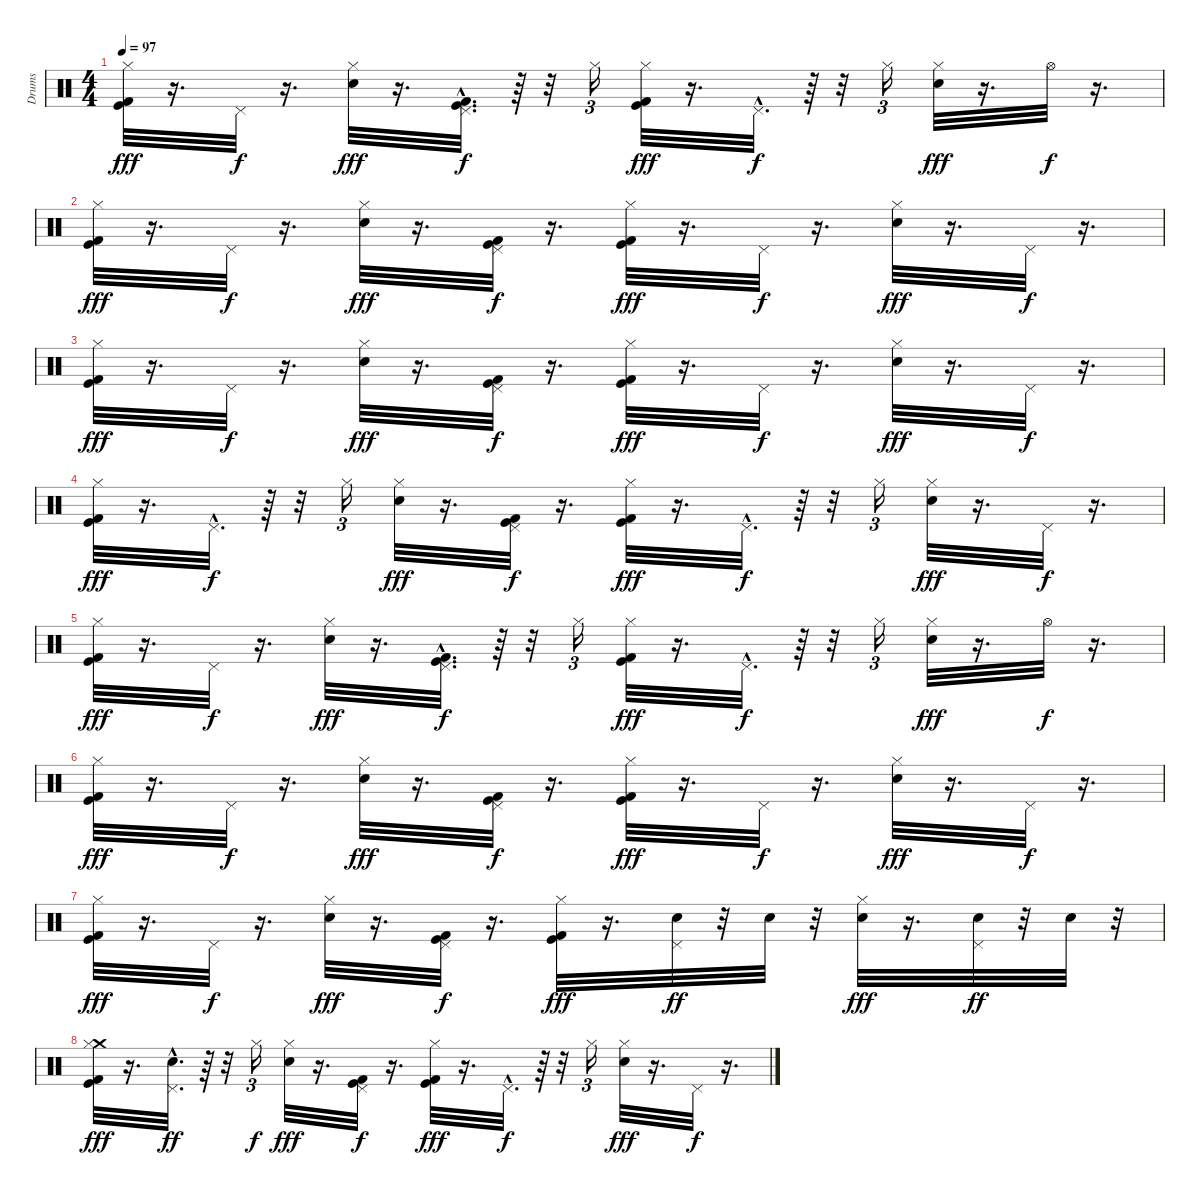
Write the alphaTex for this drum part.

\track ("Drums" "Drums") {instrument percussion}
\staff {score}
\articulation defaults
\ts (4 4)
\tempo 97
\clef neutral
\ks c
("Kick (hit)" "Kick (hit) 2" "Hi-Hat (closed)").32{dy fff} r.16{d} "Pedal Hi-Hat (hit)".32{dy f} r.16{d} ("Hi-Hat (closed)" "Snare (hit) 2").32{dy fff} r.16{d} ("Kick (hit) 2"{hac} "Kick (hit)"{hac} "Pedal Hi-Hat (hit)"{hac}).32{d dy f} r.64 r.32 "Hi-Hat (closed)".16{tu (3 2)} ("Kick (hit)" "Kick (hit) 2" "Hi-Hat (closed)").32{dy fff} r.16{d} "Pedal Hi-Hat (hit)"{hac}.32{d dy f} r.64 r.32 "Hi-Hat (closed)".16{tu (3 2)} ("Hi-Hat (closed)" "Snare (hit) 2").32{dy fff} r.16{d} "Hi-Hat (open)".32{dy f} r.16{d} |
("Kick (hit)" "Kick (hit) 2" "Hi-Hat (closed)").32{dy fff} r.16{d} "Pedal Hi-Hat (hit)".32{dy f} r.16{d} ("Hi-Hat (closed)" "Snare (hit) 2").32{dy fff} r.16{d} ("Kick (hit) 2" "Kick (hit)" "Pedal Hi-Hat (hit)").32{dy f} r.16{d} ("Kick (hit)" "Kick (hit) 2" "Hi-Hat (closed)").32{dy fff} r.16{d} "Pedal Hi-Hat (hit)".32{dy f} r.16{d} ("Hi-Hat (closed)" "Snare (hit) 2").32{dy fff} r.16{d} "Pedal Hi-Hat (hit)".32{dy f} r.16{d} |
("Kick (hit)" "Kick (hit) 2" "Hi-Hat (closed)").32{dy fff} r.16{d} "Pedal Hi-Hat (hit)".32{dy f} r.16{d} ("Hi-Hat (closed)" "Snare (hit) 2").32{dy fff} r.16{d} ("Kick (hit) 2" "Kick (hit)" "Pedal Hi-Hat (hit)").32{dy f} r.16{d} ("Kick (hit)" "Kick (hit) 2" "Hi-Hat (closed)").32{dy fff} r.16{d} "Pedal Hi-Hat (hit)".32{dy f} r.16{d} ("Hi-Hat (closed)" "Snare (hit) 2").32{dy fff} r.16{d} "Pedal Hi-Hat (hit)".32{dy f} r.16{d} |
("Kick (hit)" "Kick (hit) 2" "Hi-Hat (closed)").32{dy fff} r.16{d} "Pedal Hi-Hat (hit)"{hac}.32{d dy f} r.64 r.32 "Hi-Hat (closed)".16{tu (3 2)} ("Hi-Hat (closed)" "Snare (hit) 2").32{dy fff} r.16{d} ("Kick (hit) 2" "Kick (hit)" "Pedal Hi-Hat (hit)").32{dy f} r.16{d} ("Kick (hit)" "Kick (hit) 2" "Hi-Hat (closed)").32{dy fff} r.16{d} "Pedal Hi-Hat (hit)"{hac}.32{d dy f} r.64 r.32 "Hi-Hat (closed)".16{tu (3 2)} ("Hi-Hat (closed)" "Snare (hit) 2").32{dy fff} r.16{d} "Pedal Hi-Hat (hit)".32{dy f} r.16{d} |
("Kick (hit)" "Kick (hit) 2" "Hi-Hat (closed)").32{dy fff} r.16{d} "Pedal Hi-Hat (hit)".32{dy f} r.16{d} ("Hi-Hat (closed)" "Snare (hit) 2").32{dy fff} r.16{d} ("Kick (hit) 2"{hac} "Kick (hit)"{hac} "Pedal Hi-Hat (hit)"{hac}).32{d dy f} r.64 r.32 "Hi-Hat (closed)".16{tu (3 2)} ("Kick (hit)" "Kick (hit) 2" "Hi-Hat (closed)").32{dy fff} r.16{d} "Pedal Hi-Hat (hit)"{hac}.32{d dy f} r.64 r.32 "Hi-Hat (closed)".16{tu (3 2)} ("Hi-Hat (closed)" "Snare (hit) 2").32{dy fff} r.16{d} "Hi-Hat (open)".32{dy f} r.16{d} |
("Kick (hit)" "Kick (hit) 2" "Hi-Hat (closed)").32{dy fff} r.16{d} "Pedal Hi-Hat (hit)".32{dy f} r.16{d} ("Hi-Hat (closed)" "Snare (hit) 2").32{dy fff} r.16{d} ("Kick (hit) 2" "Kick (hit)" "Pedal Hi-Hat (hit)").32{dy f} r.16{d} ("Kick (hit)" "Kick (hit) 2" "Hi-Hat (closed)").32{dy fff} r.16{d} "Pedal Hi-Hat (hit)".32{dy f} r.16{d} ("Hi-Hat (closed)" "Snare (hit) 2").32{dy fff} r.16{d} "Pedal Hi-Hat (hit)".32{dy f} r.16{d} |
("Kick (hit)" "Kick (hit) 2" "Hi-Hat (closed)").32{dy fff} r.16{d} "Pedal Hi-Hat (hit)".32{dy f} r.16{d} ("Hi-Hat (closed)" "Snare (hit) 2").32{dy fff} r.16{d} ("Kick (hit) 2" "Kick (hit)" "Pedal Hi-Hat (hit)").32{dy f} r.16{d} ("Kick (hit)" "Kick (hit) 2" "Hi-Hat (closed)").32{dy fff} r.16{d} ("Snare (hit) 2" "Pedal Hi-Hat (hit)").32{dy ff} r.32 "Snare (hit) 2".32 r.32 ("Hi-Hat (closed)" "Snare (hit) 2").32{dy fff} r.16{d} ("Snare (hit) 2" "Pedal Hi-Hat (hit)").32{dy ff} r.32 "Snare (hit) 2".32 r.32 |
("Crash medium (hit)" "Kick (hit)" "Kick (hit) 2" "Hi-Hat (closed)").32{dy fff} r.16{d} ("Snare (hit) 2"{hac} "Pedal Hi-Hat (hit)"{hac}).32{d dy ff} r.64 r.32 "Hi-Hat (closed)".16{tu (3 2) dy f} ("Hi-Hat (closed)" "Snare (hit) 2").32{dy fff} r.16{d} ("Kick (hit) 2" "Kick (hit)" "Pedal Hi-Hat (hit)").32{dy f} r.16{d} ("Kick (hit)" "Kick (hit) 2" "Hi-Hat (closed)").32{dy fff} r.16{d} "Pedal Hi-Hat (hit)"{hac}.32{d dy f} r.64 r.32 "Hi-Hat (closed)".16{tu (3 2)} ("Hi-Hat (closed)" "Snare (hit) 2").32{dy fff} r.16{d} "Pedal Hi-Hat (hit)".32{dy f} r.16{d}
